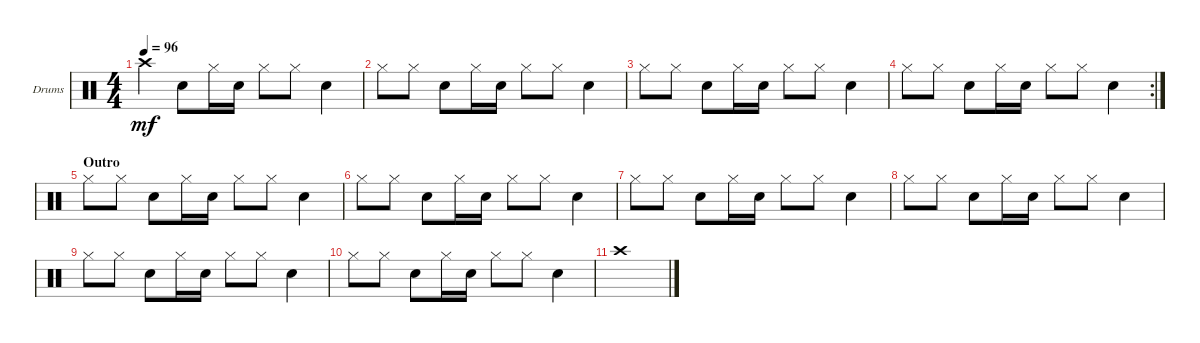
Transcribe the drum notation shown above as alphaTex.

\bracketExtendMode groupsimilarinstruments
\firstSystemTrackNameOrientation horizontal
\otherSystemsTrackNameOrientation horizontal
\track ("Drumkit" "Drums") {instrument percussion}
\staff {score}
\articulation defaults
\ts (4 4)
\tempo 96
\clef neutral
\ks c "Crash high (hit)".4{dy mf} "Snare (hit) 2".8 "Hi-Hat (closed)".16 "Snare (hit) 2".16{beam split} "Hi-Hat (closed)".8{beam merge} "Hi-Hat (closed)".8 "Snare (hit) 2".4
|
"Hi-Hat (closed)".8 "Hi-Hat (closed)".8 "Snare (hit) 2".8 "Hi-Hat (closed)".16 "Snare (hit) 2".16{beam split} "Hi-Hat (closed)".8{beam merge} "Hi-Hat (closed)".8 "Snare (hit) 2".4 |
"Hi-Hat (closed)".8 "Hi-Hat (closed)".8 "Snare (hit) 2".8 "Hi-Hat (closed)".16 "Snare (hit) 2".16{beam split} "Hi-Hat (closed)".8{beam merge} "Hi-Hat (closed)".8 "Snare (hit) 2".4 |
\rc 2 "Hi-Hat (closed)".8 "Hi-Hat (closed)".8 "Snare (hit) 2".8 "Hi-Hat (closed)".16 "Snare (hit) 2".16{beam split} "Hi-Hat (closed)".8{beam merge} "Hi-Hat (closed)".8 "Snare (hit) 2".4
|
\section ("" "Outro")
"Hi-Hat (closed)".8 "Hi-Hat (closed)".8 "Snare (hit) 2".8 "Hi-Hat (closed)".16 "Snare (hit) 2".16{beam split} "Hi-Hat (closed)".8{beam merge} "Hi-Hat (closed)".8 "Snare (hit) 2".4 |
"Hi-Hat (closed)".8 "Hi-Hat (closed)".8 "Snare (hit) 2".8 "Hi-Hat (closed)".16 "Snare (hit) 2".16{beam split} "Hi-Hat (closed)".8{beam merge} "Hi-Hat (closed)".8 "Snare (hit) 2".4 |
"Hi-Hat (closed)".8 "Hi-Hat (closed)".8 "Snare (hit) 2".8 "Hi-Hat (closed)".16 "Snare (hit) 2".16{beam split} "Hi-Hat (closed)".8{beam merge} "Hi-Hat (closed)".8 "Snare (hit) 2".4 |
"Hi-Hat (closed)".8 "Hi-Hat (closed)".8 "Snare (hit) 2".8 "Hi-Hat (closed)".16 "Snare (hit) 2".16{beam split} "Hi-Hat (closed)".8{beam merge} "Hi-Hat (closed)".8 "Snare (hit) 2".4 |
"Hi-Hat (closed)".8 "Hi-Hat (closed)".8 "Snare (hit) 2".8 "Hi-Hat (closed)".16 "Snare (hit) 2".16{beam split} "Hi-Hat (closed)".8{beam merge} "Hi-Hat (closed)".8 "Snare (hit) 2".4 |
"Hi-Hat (closed)".8 "Hi-Hat (closed)".8 "Snare (hit) 2".8 "Hi-Hat (closed)".16 "Snare (hit) 2".16{beam split} "Hi-Hat (closed)".8{beam merge} "Hi-Hat (closed)".8 "Snare (hit) 2".4 |
"Crash high (hit)".1
